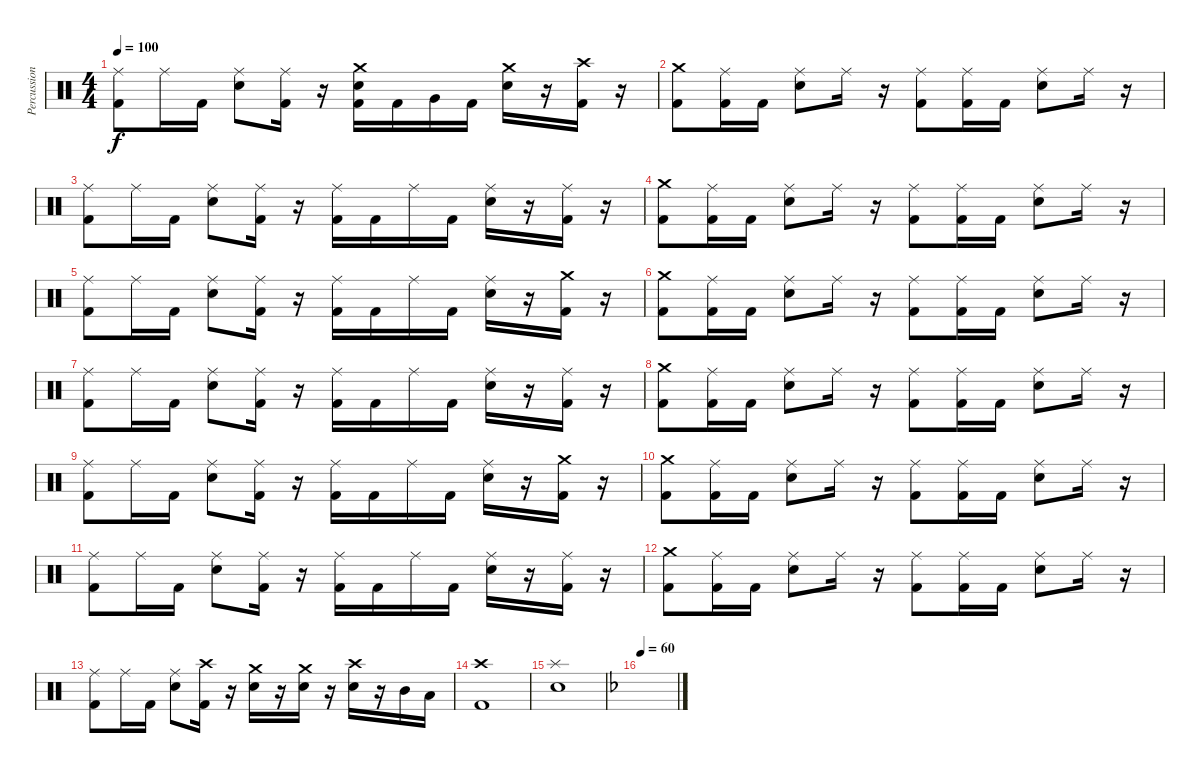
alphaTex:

\track ("Percussion" "Percussion") {instrument percussion}
\staff {score}
\articulation defaults
\ts (4 4)
\tempo 100
\clef neutral
\ks c
("Ride (middle)" "Kick (hit) 2").8{dy f} "Ride (middle)".16 "Kick (hit) 2".16 ("Ride (middle)" "Snare (hit) 2").8 ("Ride (middle)" "Kick (hit) 2").16 r.16 ("Crash medium (hit)" "Snare (hit) 2" "Kick (hit) 2").16 "Kick (hit) 2".16 "Very Low Tom (hit)".16 "Kick (hit) 2".16 ("Crash medium (hit)" "Snare (hit) 2").16 r.16 ("Crash high (hit)" "Kick (hit) 2").16 r.16 |
("Crash medium (hit)" "Kick (hit) 2").8 ("Ride (middle)" "Kick (hit) 2").16 "Kick (hit) 2".16 ("Ride (middle)" "Snare (hit) 2").8 "Ride (middle)".16 r.16 ("Ride (middle)" "Kick (hit) 2").8 ("Ride (middle)" "Kick (hit) 2").16 "Kick (hit) 2".16 ("Ride (middle)" "Snare (hit) 2").8 "Ride (middle)".16 r.16 |
("Ride (middle)" "Kick (hit) 2").8 "Ride (middle)".16 "Kick (hit) 2".16 ("Ride (middle)" "Snare (hit) 2").8 ("Ride (middle)" "Kick (hit) 2").16 r.16 ("Ride (middle)" "Kick (hit) 2").16 "Kick (hit) 2".16 "Ride (middle)".16 "Kick (hit) 2".16 ("Ride (middle)" "Snare (hit) 2").16 r.16 ("Ride (middle)" "Kick (hit) 2").16 r.16 |
("Crash medium (hit)" "Kick (hit) 2").8 ("Ride (middle)" "Kick (hit) 2").16 "Kick (hit) 2".16 ("Ride (middle)" "Snare (hit) 2").8 "Ride (middle)".16 r.16 ("Ride (middle)" "Kick (hit) 2").8 ("Ride (middle)" "Kick (hit) 2").16 "Kick (hit) 2".16 ("Ride (middle)" "Snare (hit) 2").8 "Ride (middle)".16 r.16 |
("Ride (middle)" "Kick (hit) 2").8 "Ride (middle)".16 "Kick (hit) 2".16 ("Ride (middle)" "Snare (hit) 2").8 ("Ride (middle)" "Kick (hit) 2").16 r.16 ("Ride (middle)" "Kick (hit) 2").16 "Kick (hit) 2".16 "Ride (middle)".16 "Kick (hit) 2".16 ("Ride (middle)" "Snare (hit) 2").16 r.16 ("Crash medium (hit)" "Kick (hit) 2").16 r.16 |
("Crash medium (hit)" "Kick (hit) 2").8 ("Ride (middle)" "Kick (hit) 2").16 "Kick (hit) 2".16 ("Ride (middle)" "Snare (hit) 2").8 "Ride (middle)".16 r.16 ("Ride (middle)" "Kick (hit) 2").8 ("Ride (middle)" "Kick (hit) 2").16 "Kick (hit) 2".16 ("Ride (middle)" "Snare (hit) 2").8 "Ride (middle)".16 r.16 |
("Ride (middle)" "Kick (hit) 2").8 "Ride (middle)".16 "Kick (hit) 2".16 ("Ride (middle)" "Snare (hit) 2").8 ("Ride (middle)" "Kick (hit) 2").16 r.16 ("Ride (middle)" "Kick (hit) 2").16 "Kick (hit) 2".16 "Ride (middle)".16 "Kick (hit) 2".16 ("Ride (middle)" "Snare (hit) 2").16 r.16 ("Ride (middle)" "Kick (hit) 2").16 r.16 |
("Crash medium (hit)" "Kick (hit) 2").8 ("Ride (middle)" "Kick (hit) 2").16 "Kick (hit) 2".16 ("Ride (middle)" "Snare (hit) 2").8 "Ride (middle)".16 r.16 ("Ride (middle)" "Kick (hit) 2").8 ("Ride (middle)" "Kick (hit) 2").16 "Kick (hit) 2".16 ("Ride (middle)" "Snare (hit) 2").8 "Ride (middle)".16 r.16 |
("Ride (middle)" "Kick (hit) 2").8 "Ride (middle)".16 "Kick (hit) 2".16 ("Ride (middle)" "Snare (hit) 2").8 ("Ride (middle)" "Kick (hit) 2").16 r.16 ("Ride (middle)" "Kick (hit) 2").16 "Kick (hit) 2".16 "Ride (middle)".16 "Kick (hit) 2".16 ("Ride (middle)" "Snare (hit) 2").16 r.16 ("Crash medium (hit)" "Kick (hit) 2").16 r.16 |
("Crash medium (hit)" "Kick (hit) 2").8 ("Ride (middle)" "Kick (hit) 2").16 "Kick (hit) 2".16 ("Ride (middle)" "Snare (hit) 2").8 "Ride (middle)".16 r.16 ("Ride (middle)" "Kick (hit) 2").8 ("Ride (middle)" "Kick (hit) 2").16 "Kick (hit) 2".16 ("Ride (middle)" "Snare (hit) 2").8 "Ride (middle)".16 r.16 |
("Ride (middle)" "Kick (hit) 2").8 "Ride (middle)".16 "Kick (hit) 2".16 ("Ride (middle)" "Snare (hit) 2").8 ("Ride (middle)" "Kick (hit) 2").16 r.16 ("Ride (middle)" "Kick (hit) 2").16 "Kick (hit) 2".16 "Ride (middle)".16 "Kick (hit) 2".16 ("Ride (middle)" "Snare (hit) 2").16 r.16 ("Ride (middle)" "Kick (hit) 2").16 r.16 |
("Crash medium (hit)" "Kick (hit) 2").8 ("Ride (middle)" "Kick (hit) 2").16 "Kick (hit) 2".16 ("Ride (middle)" "Snare (hit) 2").8 "Ride (middle)".16 r.16 ("Ride (middle)" "Kick (hit) 2").8 ("Ride (middle)" "Kick (hit) 2").16 "Kick (hit) 2".16 ("Ride (middle)" "Snare (hit) 2").8 "Ride (middle)".16 r.16 |
("Ride (middle)" "Kick (hit) 2").8 "Ride (middle)".16 "Kick (hit) 2".16 ("Ride (middle)" "Snare (hit) 2").8 ("Crash high (hit)" "Kick (hit) 2").16 r.16 ("Crash medium (hit)" "Snare (hit) 2").16 r.16 ("Crash medium (hit)" "Snare (hit) 2").16 r.16 ("Crash high (hit)" "Snare (hit) 2").16 r.16 "Mid Tom (hit)".16 "Low Tom (hit)".16 |
("Crash high (hit)" "Kick (hit) 2").1 |
("Snare (hit) 2" "Splash (hit)").1 |
\tempo 60
\ks dminor
